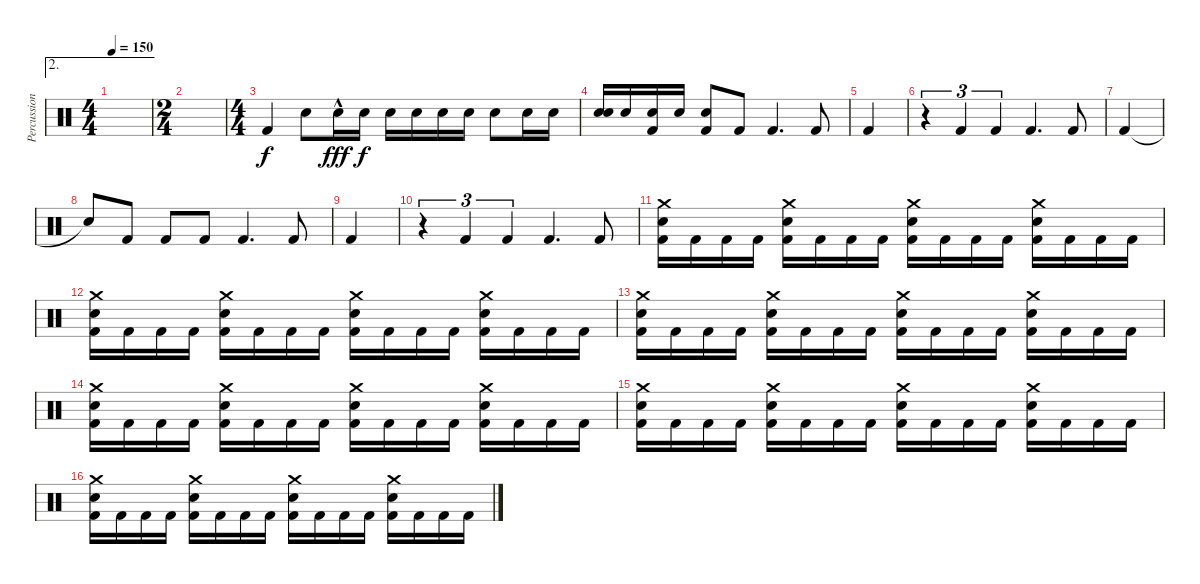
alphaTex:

\track ("Percussion" "Percussion") {instrument percussion}
\staff {score}
\articulation defaults
\ae 2
\ts (4 4)
\tempo 150
\clef neutral
\ks c
|
\ts (2 4)
|
\ts (4 4)
"Kick (hit) 2".4 "Electric Snare (hit)".8 "Electric Snare (hit)"{hac}.16{dy fff} "Electric Snare (hit)".16{dy f} "Electric Snare (hit)".16 "Electric Snare (hit)".16 "Electric Snare (hit)".16 "Electric Snare (hit)".16 "Electric Snare (hit)".8 "Electric Snare (hit)".16 "Electric Snare (hit)".16 |
("Electric Snare (hit)" "Snare (hit)").16 "Electric Snare (hit)".16 ("Electric Snare (hit)" "Kick (hit) 2").16 "Electric Snare (hit)".16 ("Electric Snare (hit)" "Kick (hit) 2").8 "Kick (hit) 2".8 "Kick (hit) 2".4{d} "Kick (hit) 2".8 |
"Kick (hit) 2".4 |
r.4{tu (3 2)} "Kick (hit) 2".4{tu (3 2)} "Kick (hit) 2".4{tu (3 2)} "Kick (hit) 2".4{d} "Kick (hit) 2".8 |
"Kick (hit) 2".4 |
"Snare (hit)"{t}.8 "Kick (hit) 2".8 "Kick (hit) 2".8 "Kick (hit) 2".8 "Kick (hit) 2".4{d} "Kick (hit) 2".8 |
"Kick (hit) 2".4 |
r.4{tu (3 2)} "Kick (hit) 2".4{tu (3 2)} "Kick (hit) 2".4{tu (3 2)} "Kick (hit) 2".4{d} "Kick (hit) 2".8 |
("Crash medium (hit)" "Electric Snare (hit)" "Kick (hit) 2").16 "Kick (hit) 2".16 "Kick (hit) 2".16 "Kick (hit) 2".16 ("Crash medium (hit)" "Electric Snare (hit)" "Kick (hit) 2").16 "Kick (hit) 2".16 "Kick (hit) 2".16 "Kick (hit) 2".16 ("Crash medium (hit)" "Electric Snare (hit)" "Kick (hit) 2").16 "Kick (hit) 2".16 "Kick (hit) 2".16 "Kick (hit) 2".16 ("Crash medium (hit)" "Electric Snare (hit)" "Kick (hit) 2").16 "Kick (hit) 2".16 "Kick (hit) 2".16 "Kick (hit) 2".16 |
("Crash medium (hit)" "Electric Snare (hit)" "Kick (hit) 2").16 "Kick (hit) 2".16 "Kick (hit) 2".16 "Kick (hit) 2".16 ("Crash medium (hit)" "Electric Snare (hit)" "Kick (hit) 2").16 "Kick (hit) 2".16 "Kick (hit) 2".16 "Kick (hit) 2".16 ("Crash medium (hit)" "Electric Snare (hit)" "Kick (hit) 2").16 "Kick (hit) 2".16 "Kick (hit) 2".16 "Kick (hit) 2".16 ("Crash medium (hit)" "Electric Snare (hit)" "Kick (hit) 2").16 "Kick (hit) 2".16 "Kick (hit) 2".16 "Kick (hit) 2".16 |
("Crash medium (hit)" "Electric Snare (hit)" "Kick (hit) 2").16 "Kick (hit) 2".16 "Kick (hit) 2".16 "Kick (hit) 2".16 ("Crash medium (hit)" "Electric Snare (hit)" "Kick (hit) 2").16 "Kick (hit) 2".16 "Kick (hit) 2".16 "Kick (hit) 2".16 ("Crash medium (hit)" "Electric Snare (hit)" "Kick (hit) 2").16 "Kick (hit) 2".16 "Kick (hit) 2".16 "Kick (hit) 2".16 ("Crash medium (hit)" "Electric Snare (hit)" "Kick (hit) 2").16 "Kick (hit) 2".16 "Kick (hit) 2".16 "Kick (hit) 2".16 |
("Crash medium (hit)" "Electric Snare (hit)" "Kick (hit) 2").16 "Kick (hit) 2".16 "Kick (hit) 2".16 "Kick (hit) 2".16 ("Crash medium (hit)" "Electric Snare (hit)" "Kick (hit) 2").16 "Kick (hit) 2".16 "Kick (hit) 2".16 "Kick (hit) 2".16 ("Crash medium (hit)" "Electric Snare (hit)" "Kick (hit) 2").16 "Kick (hit) 2".16 "Kick (hit) 2".16 "Kick (hit) 2".16 ("Crash medium (hit)" "Electric Snare (hit)" "Kick (hit) 2").16 "Kick (hit) 2".16 "Kick (hit) 2".16 "Kick (hit) 2".16 |
("Crash medium (hit)" "Electric Snare (hit)" "Kick (hit) 2").16 "Kick (hit) 2".16 "Kick (hit) 2".16 "Kick (hit) 2".16 ("Crash medium (hit)" "Electric Snare (hit)" "Kick (hit) 2").16 "Kick (hit) 2".16 "Kick (hit) 2".16 "Kick (hit) 2".16 ("Crash medium (hit)" "Electric Snare (hit)" "Kick (hit) 2").16 "Kick (hit) 2".16 "Kick (hit) 2".16 "Kick (hit) 2".16 ("Crash medium (hit)" "Electric Snare (hit)" "Kick (hit) 2").16 "Kick (hit) 2".16 "Kick (hit) 2".16 "Kick (hit) 2".16 |
("Crash medium (hit)" "Electric Snare (hit)" "Kick (hit) 2").16 "Kick (hit) 2".16 "Kick (hit) 2".16 "Kick (hit) 2".16 ("Crash medium (hit)" "Electric Snare (hit)" "Kick (hit) 2").16 "Kick (hit) 2".16 "Kick (hit) 2".16 "Kick (hit) 2".16 ("Crash medium (hit)" "Electric Snare (hit)" "Kick (hit) 2").16 "Kick (hit) 2".16 "Kick (hit) 2".16 "Kick (hit) 2".16 ("Crash medium (hit)" "Electric Snare (hit)" "Kick (hit) 2").16 "Kick (hit) 2".16 "Kick (hit) 2".16 "Kick (hit) 2".16
